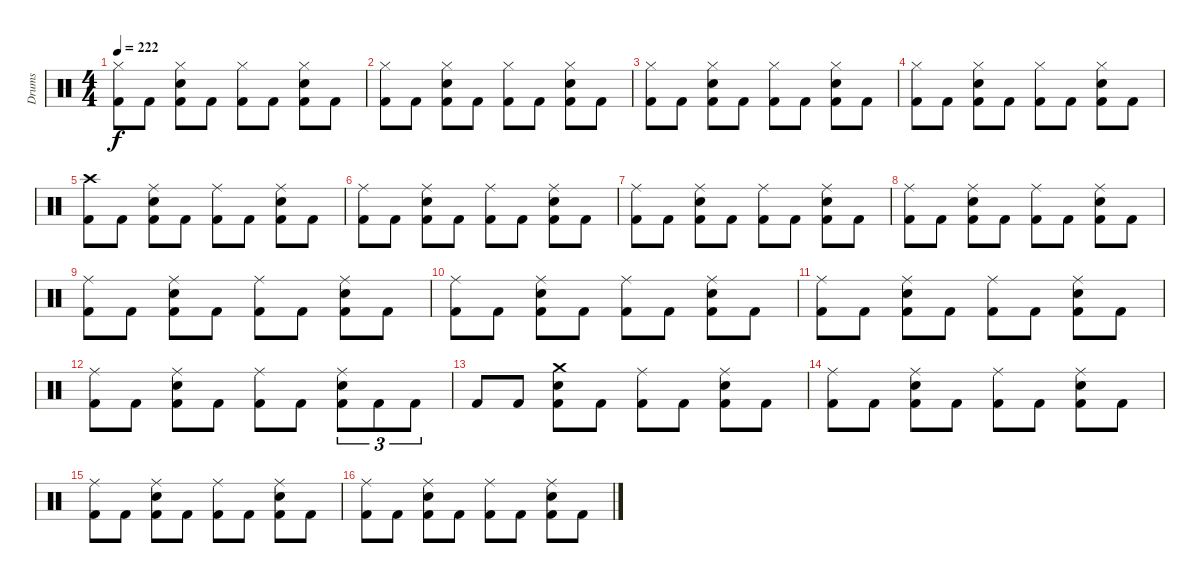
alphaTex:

\track ("Drums" "Drums") {instrument percussion}
\staff {score}
\articulation defaults
\ts (4 4)
\tempo 222
\clef neutral
\ks c
("Hi-Hat (closed)" "Kick (hit) 2").8{dy f} "Kick (hit) 2".8 ("Hi-Hat (closed)" "Electric Snare (hit)" "Kick (hit) 2").8 "Kick (hit) 2".8 ("Hi-Hat (closed)" "Kick (hit) 2").8 "Kick (hit) 2".8 ("Hi-Hat (closed)" "Electric Snare (hit)" "Kick (hit) 2").8 "Kick (hit) 2".8 |
("Hi-Hat (closed)" "Kick (hit) 2").8 "Kick (hit) 2".8 ("Hi-Hat (closed)" "Electric Snare (hit)" "Kick (hit) 2").8 "Kick (hit) 2".8 ("Hi-Hat (closed)" "Kick (hit) 2").8 "Kick (hit) 2".8 ("Hi-Hat (closed)" "Electric Snare (hit)" "Kick (hit) 2").8 "Kick (hit) 2".8 |
("Hi-Hat (closed)" "Kick (hit) 2").8 "Kick (hit) 2".8 ("Hi-Hat (closed)" "Electric Snare (hit)" "Kick (hit) 2").8 "Kick (hit) 2".8 ("Hi-Hat (closed)" "Kick (hit) 2").8 "Kick (hit) 2".8 ("Hi-Hat (closed)" "Electric Snare (hit)" "Kick (hit) 2").8 "Kick (hit) 2".8 |
("Hi-Hat (closed)" "Kick (hit) 2").8 "Kick (hit) 2".8 ("Hi-Hat (closed)" "Electric Snare (hit)" "Kick (hit) 2").8 "Kick (hit) 2".8 ("Hi-Hat (closed)" "Kick (hit) 2").8 "Kick (hit) 2".8 ("Hi-Hat (closed)" "Electric Snare (hit)" "Kick (hit) 2").8 "Kick (hit) 2".8 |
("Crash high (hit)" "Kick (hit) 2").8 "Kick (hit) 2".8 ("Ride (middle)" "Electric Snare (hit)" "Kick (hit) 2").8 "Kick (hit) 2".8 ("Ride (middle)" "Kick (hit) 2").8 "Kick (hit) 2".8 ("Ride (middle)" "Electric Snare (hit)" "Kick (hit) 2").8 "Kick (hit) 2".8 |
("Ride (middle)" "Kick (hit) 2").8 "Kick (hit) 2".8 ("Ride (middle)" "Electric Snare (hit)" "Kick (hit) 2").8 "Kick (hit) 2".8 ("Ride (middle)" "Kick (hit) 2").8 "Kick (hit) 2".8 ("Ride (middle)" "Electric Snare (hit)" "Kick (hit) 2").8 "Kick (hit) 2".8 |
("Ride (middle)" "Kick (hit) 2").8 "Kick (hit) 2".8 ("Ride (middle)" "Electric Snare (hit)" "Kick (hit) 2").8 "Kick (hit) 2".8 ("Ride (middle)" "Kick (hit) 2").8 "Kick (hit) 2".8 ("Ride (middle)" "Electric Snare (hit)" "Kick (hit) 2").8 "Kick (hit) 2".8 |
("Ride (middle)" "Kick (hit) 2").8 "Kick (hit) 2".8 ("Ride (middle)" "Electric Snare (hit)" "Kick (hit) 2").8 "Kick (hit) 2".8 ("Ride (middle)" "Kick (hit) 2").8 "Kick (hit) 2".8 ("Ride (middle)" "Electric Snare (hit)" "Kick (hit) 2").8 "Kick (hit) 2".8 |
("Ride (middle)" "Kick (hit) 2").8 "Kick (hit) 2".8 ("Ride (middle)" "Electric Snare (hit)" "Kick (hit) 2").8 "Kick (hit) 2".8 ("Ride (middle)" "Kick (hit) 2").8 "Kick (hit) 2".8 ("Ride (middle)" "Electric Snare (hit)" "Kick (hit) 2").8 "Kick (hit) 2".8 |
("Ride (middle)" "Kick (hit) 2").8 "Kick (hit) 2".8 ("Ride (middle)" "Electric Snare (hit)" "Kick (hit) 2").8 "Kick (hit) 2".8 ("Ride (middle)" "Kick (hit) 2").8 "Kick (hit) 2".8 ("Ride (middle)" "Electric Snare (hit)" "Kick (hit) 2").8 "Kick (hit) 2".8 |
("Ride (middle)" "Kick (hit) 2").8 "Kick (hit) 2".8 ("Ride (middle)" "Electric Snare (hit)" "Kick (hit) 2").8 "Kick (hit) 2".8 ("Ride (middle)" "Kick (hit) 2").8 "Kick (hit) 2".8 ("Ride (middle)" "Electric Snare (hit)" "Kick (hit) 2").8 "Kick (hit) 2".8 |
("Ride (middle)" "Kick (hit) 2").8 "Kick (hit) 2".8 ("Ride (middle)" "Electric Snare (hit)" "Kick (hit) 2").8 "Kick (hit) 2".8 ("Ride (middle)" "Kick (hit) 2").8 "Kick (hit) 2".8 ("Ride (middle)" "Electric Snare (hit)" "Kick (hit) 2").8{tu (3 2)} "Kick (hit) 2".8{tu (3 2)} "Kick (hit) 2".8{tu (3 2)} |
"Kick (hit) 2".8 "Kick (hit) 2".8 ("Crash medium (hit)" "Electric Snare (hit)" "Kick (hit) 2").8 "Kick (hit) 2".8 ("Ride (middle)" "Kick (hit) 2").8 "Kick (hit) 2".8 ("Ride (middle)" "Electric Snare (hit)" "Kick (hit) 2").8 "Kick (hit) 2".8 |
("Ride (middle)" "Kick (hit) 2").8 "Kick (hit) 2".8 ("Ride (middle)" "Electric Snare (hit)" "Kick (hit) 2").8 "Kick (hit) 2".8 ("Ride (middle)" "Kick (hit) 2").8 "Kick (hit) 2".8 ("Ride (middle)" "Electric Snare (hit)" "Kick (hit) 2").8 "Kick (hit) 2".8 |
("Ride (middle)" "Kick (hit) 2").8 "Kick (hit) 2".8 ("Ride (middle)" "Electric Snare (hit)" "Kick (hit) 2").8 "Kick (hit) 2".8 ("Ride (middle)" "Kick (hit) 2").8 "Kick (hit) 2".8 ("Ride (middle)" "Electric Snare (hit)" "Kick (hit) 2").8 "Kick (hit) 2".8 |
("Ride (middle)" "Kick (hit) 2").8 "Kick (hit) 2".8 ("Ride (middle)" "Electric Snare (hit)" "Kick (hit) 2").8 "Kick (hit) 2".8 ("Ride (middle)" "Kick (hit) 2").8 "Kick (hit) 2".8 ("Ride (middle)" "Electric Snare (hit)" "Kick (hit) 2").8 "Kick (hit) 2".8
